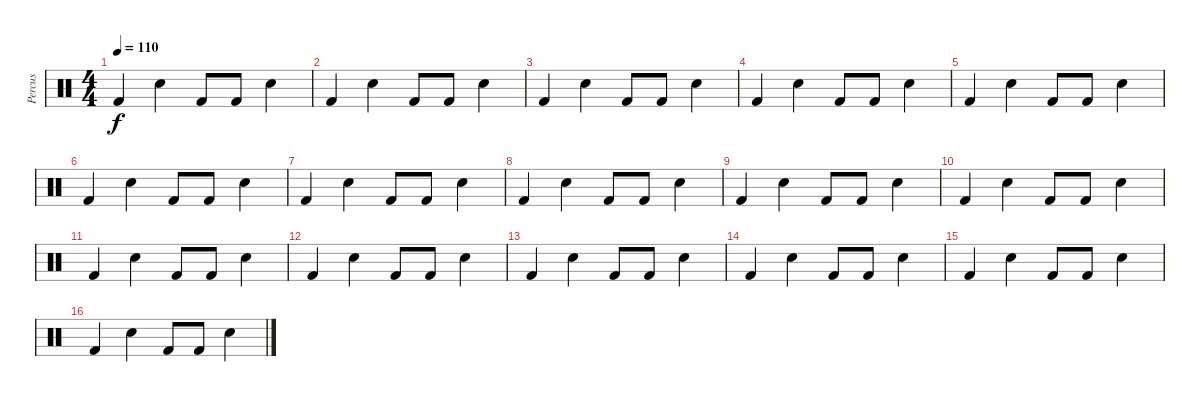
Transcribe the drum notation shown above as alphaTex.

\track ("Percus" "Percus") {instrument percussion}
\staff {score}
\articulation defaults
\ts (4 4)
\tempo 110
\clef neutral
\ks c "Kick (hit) 2".4{dy f} "Electric Snare (hit)".4 "Kick (hit) 2".8 "Kick (hit) 2".8 "Electric Snare (hit)".4
|
"Kick (hit) 2".4 "Electric Snare (hit)".4 "Kick (hit) 2".8 "Kick (hit) 2".8 "Electric Snare (hit)".4 |
"Kick (hit) 2".4 "Electric Snare (hit)".4 "Kick (hit) 2".8 "Kick (hit) 2".8 "Electric Snare (hit)".4 |
"Kick (hit) 2".4 "Electric Snare (hit)".4 "Kick (hit) 2".8 "Kick (hit) 2".8 "Electric Snare (hit)".4 |
"Kick (hit) 2".4 "Electric Snare (hit)".4 "Kick (hit) 2".8 "Kick (hit) 2".8 "Electric Snare (hit)".4 |
"Kick (hit) 2".4 "Electric Snare (hit)".4 "Kick (hit) 2".8 "Kick (hit) 2".8 "Electric Snare (hit)".4 |
"Kick (hit) 2".4 "Electric Snare (hit)".4 "Kick (hit) 2".8 "Kick (hit) 2".8 "Electric Snare (hit)".4 |
"Kick (hit) 2".4 "Electric Snare (hit)".4 "Kick (hit) 2".8 "Kick (hit) 2".8 "Electric Snare (hit)".4 |
"Kick (hit) 2".4 "Electric Snare (hit)".4 "Kick (hit) 2".8 "Kick (hit) 2".8 "Electric Snare (hit)".4 |
"Kick (hit) 2".4 "Electric Snare (hit)".4 "Kick (hit) 2".8 "Kick (hit) 2".8 "Electric Snare (hit)".4 |
"Kick (hit) 2".4 "Electric Snare (hit)".4 "Kick (hit) 2".8 "Kick (hit) 2".8 "Electric Snare (hit)".4 |
"Kick (hit) 2".4 "Electric Snare (hit)".4 "Kick (hit) 2".8 "Kick (hit) 2".8 "Electric Snare (hit)".4 |
"Kick (hit) 2".4 "Electric Snare (hit)".4 "Kick (hit) 2".8 "Kick (hit) 2".8 "Electric Snare (hit)".4 |
"Kick (hit) 2".4 "Electric Snare (hit)".4 "Kick (hit) 2".8 "Kick (hit) 2".8 "Electric Snare (hit)".4 |
"Kick (hit) 2".4 "Electric Snare (hit)".4 "Kick (hit) 2".8 "Kick (hit) 2".8 "Electric Snare (hit)".4 |
"Kick (hit) 2".4 "Electric Snare (hit)".4 "Kick (hit) 2".8 "Kick (hit) 2".8 "Electric Snare (hit)".4
